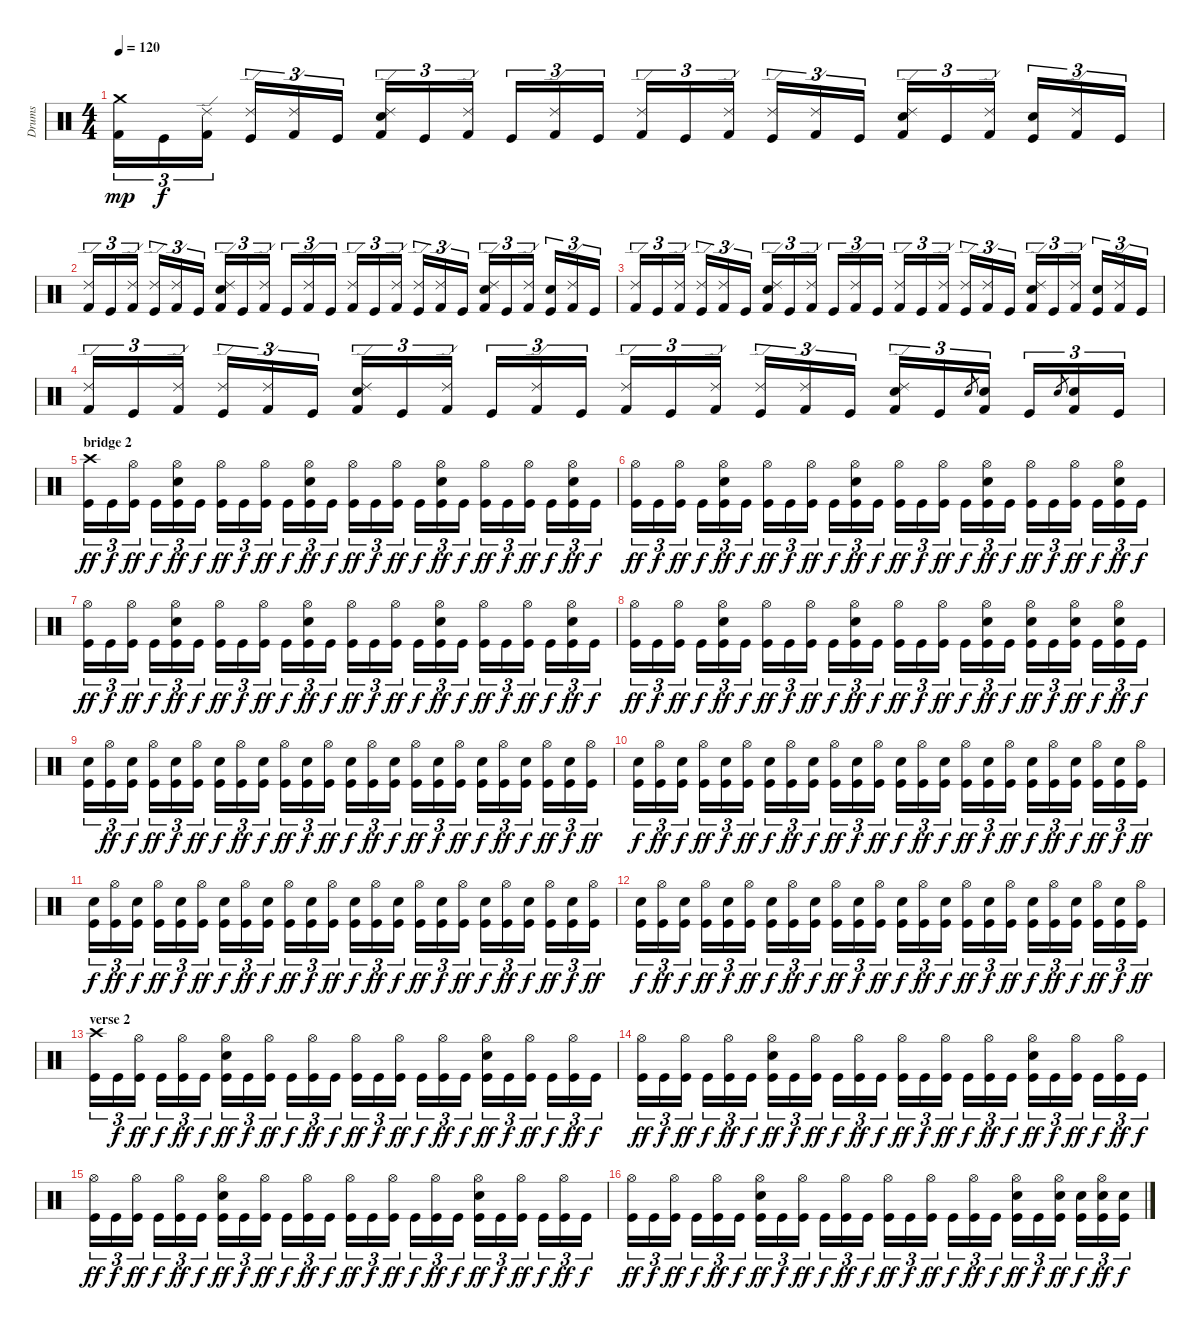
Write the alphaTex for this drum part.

\track ("Drums" "Drums") {instrument percussion}
\staff {score}
\articulation defaults
\ts (4 4)
\tempo 120
\clef neutral
\ks c
("Crash medium (hit)" "Kick (hit) 2").16{tu (3 2) dy mp} "Kick (hit)".16{tu (3 2) dy f} ("Ride (edge) 2" "Kick (hit) 2").16{tu (3 2)} ("Ride (edge) 2" "Kick (hit)").16{tu (3 2)} ("Ride (edge) 2" "Kick (hit) 2").16{tu (3 2)} "Kick (hit)".16{tu (3 2)} ("Ride (edge) 2" "Snare (hit) 2" "Kick (hit) 2").16{tu (3 2)} "Kick (hit)".16{tu (3 2)} ("Ride (edge) 2" "Kick (hit) 2").16{tu (3 2)} "Kick (hit)".16{tu (3 2)} ("Ride (edge) 2" "Kick (hit) 2").16{tu (3 2)} "Kick (hit)".16{tu (3 2)} ("Ride (edge) 2" "Kick (hit) 2").16{tu (3 2)} "Kick (hit)".16{tu (3 2)} ("Ride (edge) 2" "Kick (hit) 2").16{tu (3 2)} ("Ride (edge) 2" "Kick (hit)").16{tu (3 2)} ("Ride (edge) 2" "Kick (hit) 2").16{tu (3 2)} "Kick (hit)".16{tu (3 2)} ("Ride (edge) 2" "Snare (hit) 2" "Kick (hit) 2").16{tu (3 2)} "Kick (hit)".16{tu (3 2)} ("Ride (edge) 2" "Kick (hit) 2").16{tu (3 2)} ("Snare (hit) 2" "Kick (hit)").16{tu (3 2)} ("Ride (edge) 2" "Kick (hit) 2").16{tu (3 2)} "Kick (hit)".16{tu (3 2)} |
("Ride (edge) 2" "Kick (hit) 2").16{tu (3 2)} "Kick (hit)".16{tu (3 2)} ("Ride (edge) 2" "Kick (hit) 2").16{tu (3 2)} ("Ride (edge) 2" "Kick (hit)").16{tu (3 2)} ("Ride (edge) 2" "Kick (hit) 2").16{tu (3 2)} "Kick (hit)".16{tu (3 2)} ("Ride (edge) 2" "Snare (hit) 2" "Kick (hit) 2").16{tu (3 2)} "Kick (hit)".16{tu (3 2)} ("Ride (edge) 2" "Kick (hit) 2").16{tu (3 2)} "Kick (hit)".16{tu (3 2)} ("Ride (edge) 2" "Kick (hit) 2").16{tu (3 2)} "Kick (hit)".16{tu (3 2)} ("Ride (edge) 2" "Kick (hit) 2").16{tu (3 2)} "Kick (hit)".16{tu (3 2)} ("Ride (edge) 2" "Kick (hit) 2").16{tu (3 2)} ("Ride (edge) 2" "Kick (hit)").16{tu (3 2)} ("Ride (edge) 2" "Kick (hit) 2").16{tu (3 2)} "Kick (hit)".16{tu (3 2)} ("Ride (edge) 2" "Snare (hit) 2" "Kick (hit) 2").16{tu (3 2)} "Kick (hit)".16{tu (3 2)} ("Ride (edge) 2" "Kick (hit) 2").16{tu (3 2)} ("Snare (hit) 2" "Kick (hit)").16{tu (3 2)} ("Ride (edge) 2" "Kick (hit) 2").16{tu (3 2)} "Kick (hit)".16{tu (3 2)} |
("Ride (edge) 2" "Kick (hit) 2").16{tu (3 2)} "Kick (hit)".16{tu (3 2)} ("Ride (edge) 2" "Kick (hit) 2").16{tu (3 2)} ("Ride (edge) 2" "Kick (hit)").16{tu (3 2)} ("Ride (edge) 2" "Kick (hit) 2").16{tu (3 2)} "Kick (hit)".16{tu (3 2)} ("Ride (edge) 2" "Snare (hit) 2" "Kick (hit) 2").16{tu (3 2)} "Kick (hit)".16{tu (3 2)} ("Ride (edge) 2" "Kick (hit) 2").16{tu (3 2)} "Kick (hit)".16{tu (3 2)} ("Ride (edge) 2" "Kick (hit) 2").16{tu (3 2)} "Kick (hit)".16{tu (3 2)} ("Ride (edge) 2" "Kick (hit) 2").16{tu (3 2)} "Kick (hit)".16{tu (3 2)} ("Ride (edge) 2" "Kick (hit) 2").16{tu (3 2)} ("Ride (edge) 2" "Kick (hit)").16{tu (3 2)} ("Ride (edge) 2" "Kick (hit) 2").16{tu (3 2)} "Kick (hit)".16{tu (3 2)} ("Ride (edge) 2" "Snare (hit) 2" "Kick (hit) 2").16{tu (3 2)} "Kick (hit)".16{tu (3 2)} ("Ride (edge) 2" "Kick (hit) 2").16{tu (3 2)} ("Snare (hit) 2" "Kick (hit)").16{tu (3 2)} ("Ride (edge) 2" "Kick (hit) 2").16{tu (3 2)} "Kick (hit)".16{tu (3 2)} |
("Ride (edge) 2" "Kick (hit) 2").16{tu (3 2)} "Kick (hit)".16{tu (3 2)} ("Ride (edge) 2" "Kick (hit) 2").16{tu (3 2)} ("Ride (edge) 2" "Kick (hit)").16{tu (3 2)} ("Ride (edge) 2" "Kick (hit) 2").16{tu (3 2)} "Kick (hit)".16{tu (3 2)} ("Ride (edge) 2" "Snare (hit) 2" "Kick (hit) 2").16{tu (3 2)} "Kick (hit)".16{tu (3 2)} ("Ride (edge) 2" "Kick (hit) 2").16{tu (3 2)} "Kick (hit)".16{tu (3 2)} ("Ride (edge) 2" "Kick (hit) 2").16{tu (3 2)} "Kick (hit)".16{tu (3 2)} ("Ride (edge) 2" "Kick (hit) 2").16{tu (3 2)} "Kick (hit)".16{tu (3 2)} ("Ride (edge) 2" "Kick (hit) 2").16{tu (3 2)} ("Ride (edge) 2" "Kick (hit)").16{tu (3 2)} ("Ride (edge) 2" "Kick (hit) 2").16{tu (3 2)} "Kick (hit)".16{tu (3 2)} ("Ride (edge) 2" "Snare (hit) 2" "Kick (hit) 2").16{tu (3 2)} "Kick (hit)".16{tu (3 2)} "Snare (hit) 2".8{gr} ("Snare (hit) 2" "Kick (hit) 2").16{tu (3 2)} "Kick (hit)".16{tu (3 2)} "Snare (hit) 2".8{gr} ("Snare (hit) 2" "Kick (hit) 2").16{tu (3 2)} "Kick (hit)".16{tu (3 2)} |
\section ("" "bridge 2")
("Crash high (hit)" "Kick (hit)").16{tu (3 2) dy ff} "Kick (hit)".16{tu (3 2) dy f} ("Hi-Hat (open)" "Kick (hit)").16{tu (3 2) dy ff} "Kick (hit)".16{tu (3 2) dy f} ("Hi-Hat (open)" "Snare (hit) 2" "Kick (hit)").16{tu (3 2) dy ff} "Kick (hit)".16{tu (3 2) dy f} ("Hi-Hat (open)" "Kick (hit)").16{tu (3 2) dy ff} "Kick (hit)".16{tu (3 2) dy f} ("Hi-Hat (open)" "Kick (hit)").16{tu (3 2) dy ff} "Kick (hit)".16{tu (3 2) dy f} ("Hi-Hat (open)" "Snare (hit) 2" "Kick (hit)").16{tu (3 2) dy ff} "Kick (hit)".16{tu (3 2) dy f} ("Hi-Hat (open)" "Kick (hit)").16{tu (3 2) dy ff} "Kick (hit)".16{tu (3 2) dy f} ("Hi-Hat (open)" "Kick (hit)").16{tu (3 2) dy ff} "Kick (hit)".16{tu (3 2) dy f} ("Hi-Hat (open)" "Snare (hit) 2" "Kick (hit)").16{tu (3 2) dy ff} "Kick (hit)".16{tu (3 2) dy f} ("Hi-Hat (open)" "Kick (hit)").16{tu (3 2) dy ff} "Kick (hit)".16{tu (3 2) dy f} ("Hi-Hat (open)" "Kick (hit)").16{tu (3 2) dy ff} "Kick (hit)".16{tu (3 2) dy f} ("Hi-Hat (open)" "Snare (hit) 2" "Kick (hit)").16{tu (3 2) dy ff} "Kick (hit)".16{tu (3 2) dy f} |
("Hi-Hat (open)" "Kick (hit)").16{tu (3 2) dy ff} "Kick (hit)".16{tu (3 2) dy f} ("Hi-Hat (open)" "Kick (hit)").16{tu (3 2) dy ff} "Kick (hit)".16{tu (3 2) dy f} ("Hi-Hat (open)" "Snare (hit) 2" "Kick (hit)").16{tu (3 2) dy ff} "Kick (hit)".16{tu (3 2) dy f} ("Hi-Hat (open)" "Kick (hit)").16{tu (3 2) dy ff} "Kick (hit)".16{tu (3 2) dy f} ("Hi-Hat (open)" "Kick (hit)").16{tu (3 2) dy ff} "Kick (hit)".16{tu (3 2) dy f} ("Hi-Hat (open)" "Snare (hit) 2" "Kick (hit)").16{tu (3 2) dy ff} "Kick (hit)".16{tu (3 2) dy f} ("Hi-Hat (open)" "Kick (hit)").16{tu (3 2) dy ff} "Kick (hit)".16{tu (3 2) dy f} ("Hi-Hat (open)" "Kick (hit)").16{tu (3 2) dy ff} "Kick (hit)".16{tu (3 2) dy f} ("Hi-Hat (open)" "Snare (hit) 2" "Kick (hit)").16{tu (3 2) dy ff} "Kick (hit)".16{tu (3 2) dy f} ("Hi-Hat (open)" "Kick (hit)").16{tu (3 2) dy ff} "Kick (hit)".16{tu (3 2) dy f} ("Hi-Hat (open)" "Kick (hit)").16{tu (3 2) dy ff} "Kick (hit)".16{tu (3 2) dy f} ("Hi-Hat (open)" "Snare (hit) 2" "Kick (hit)").16{tu (3 2) dy ff} "Kick (hit)".16{tu (3 2) dy f} |
("Hi-Hat (open)" "Kick (hit)").16{tu (3 2) dy ff} "Kick (hit)".16{tu (3 2) dy f} ("Hi-Hat (open)" "Kick (hit)").16{tu (3 2) dy ff} "Kick (hit)".16{tu (3 2) dy f} ("Hi-Hat (open)" "Snare (hit) 2" "Kick (hit)").16{tu (3 2) dy ff} "Kick (hit)".16{tu (3 2) dy f} ("Hi-Hat (open)" "Kick (hit)").16{tu (3 2) dy ff} "Kick (hit)".16{tu (3 2) dy f} ("Hi-Hat (open)" "Kick (hit)").16{tu (3 2) dy ff} "Kick (hit)".16{tu (3 2) dy f} ("Hi-Hat (open)" "Snare (hit) 2" "Kick (hit)").16{tu (3 2) dy ff} "Kick (hit)".16{tu (3 2) dy f} ("Hi-Hat (open)" "Kick (hit)").16{tu (3 2) dy ff} "Kick (hit)".16{tu (3 2) dy f} ("Hi-Hat (open)" "Kick (hit)").16{tu (3 2) dy ff} "Kick (hit)".16{tu (3 2) dy f} ("Hi-Hat (open)" "Snare (hit) 2" "Kick (hit)").16{tu (3 2) dy ff} "Kick (hit)".16{tu (3 2) dy f} ("Hi-Hat (open)" "Kick (hit)").16{tu (3 2) dy ff} "Kick (hit)".16{tu (3 2) dy f} ("Hi-Hat (open)" "Kick (hit)").16{tu (3 2) dy ff} "Kick (hit)".16{tu (3 2) dy f} ("Hi-Hat (open)" "Snare (hit) 2" "Kick (hit)").16{tu (3 2) dy ff} "Kick (hit)".16{tu (3 2) dy f} |
("Hi-Hat (open)" "Kick (hit)").16{tu (3 2) dy ff} "Kick (hit)".16{tu (3 2) dy f} ("Hi-Hat (open)" "Kick (hit)").16{tu (3 2) dy ff} "Kick (hit)".16{tu (3 2) dy f} ("Hi-Hat (open)" "Snare (hit) 2" "Kick (hit)").16{tu (3 2) dy ff} "Kick (hit)".16{tu (3 2) dy f} ("Hi-Hat (open)" "Kick (hit)").16{tu (3 2) dy ff} "Kick (hit)".16{tu (3 2) dy f} ("Hi-Hat (open)" "Kick (hit)").16{tu (3 2) dy ff} "Kick (hit)".16{tu (3 2) dy f} ("Hi-Hat (open)" "Snare (hit) 2" "Kick (hit)").16{tu (3 2) dy ff} "Kick (hit)".16{tu (3 2) dy f} ("Hi-Hat (open)" "Kick (hit)").16{tu (3 2) dy ff} "Kick (hit)".16{tu (3 2) dy f} ("Hi-Hat (open)" "Kick (hit)").16{tu (3 2) dy ff} "Kick (hit)".16{tu (3 2) dy f} ("Hi-Hat (open)" "Snare (hit) 2" "Kick (hit)").16{tu (3 2) dy ff} "Kick (hit)".16{tu (3 2) dy f} ("Hi-Hat (open)" "Snare (hit) 2" "Kick (hit)").16{tu (3 2) dy ff} "Kick (hit)".16{tu (3 2) dy f} ("Hi-Hat (open)" "Snare (hit) 2" "Kick (hit)").16{tu (3 2) dy ff} "Kick (hit)".16{tu (3 2) dy f} ("Hi-Hat (open)" "Snare (hit) 2" "Kick (hit)").16{tu (3 2) dy ff} "Kick (hit)".16{tu (3 2) dy f} |
("Snare (hit) 2" "Kick (hit)").16{tu (3 2)} ("Hi-Hat (open)" "Kick (hit)").16{tu (3 2) dy ff} ("Snare (hit) 2" "Kick (hit)").16{tu (3 2) dy f} ("Hi-Hat (open)" "Kick (hit)").16{tu (3 2) dy ff} ("Snare (hit) 2" "Kick (hit)").16{tu (3 2) dy f} ("Hi-Hat (open)" "Kick (hit)").16{tu (3 2) dy ff} ("Snare (hit) 2" "Kick (hit)").16{tu (3 2) dy f} ("Hi-Hat (open)" "Kick (hit)").16{tu (3 2) dy ff} ("Snare (hit) 2" "Kick (hit)").16{tu (3 2) dy f} ("Hi-Hat (open)" "Kick (hit)").16{tu (3 2) dy ff} ("Snare (hit) 2" "Kick (hit)").16{tu (3 2) dy f} ("Hi-Hat (open)" "Kick (hit)").16{tu (3 2) dy ff} ("Snare (hit) 2" "Kick (hit)").16{tu (3 2) dy f} ("Hi-Hat (open)" "Kick (hit)").16{tu (3 2) dy ff} ("Snare (hit) 2" "Kick (hit)").16{tu (3 2) dy f} ("Hi-Hat (open)" "Kick (hit)").16{tu (3 2) dy ff} ("Snare (hit) 2" "Kick (hit)").16{tu (3 2) dy f} ("Hi-Hat (open)" "Kick (hit)").16{tu (3 2) dy ff} ("Snare (hit) 2" "Kick (hit)").16{tu (3 2) dy f} ("Hi-Hat (open)" "Kick (hit)").16{tu (3 2) dy ff} ("Snare (hit) 2" "Kick (hit)").16{tu (3 2) dy f} ("Hi-Hat (open)" "Kick (hit)").16{tu (3 2) dy ff} ("Snare (hit) 2" "Kick (hit)").16{tu (3 2) dy f} ("Hi-Hat (open)" "Kick (hit)").16{tu (3 2) dy ff} |
("Snare (hit) 2" "Kick (hit)").16{tu (3 2) dy f} ("Hi-Hat (open)" "Kick (hit)").16{tu (3 2) dy ff} ("Snare (hit) 2" "Kick (hit)").16{tu (3 2) dy f} ("Hi-Hat (open)" "Kick (hit)").16{tu (3 2) dy ff} ("Snare (hit) 2" "Kick (hit)").16{tu (3 2) dy f} ("Hi-Hat (open)" "Kick (hit)").16{tu (3 2) dy ff} ("Snare (hit) 2" "Kick (hit)").16{tu (3 2) dy f} ("Hi-Hat (open)" "Kick (hit)").16{tu (3 2) dy ff} ("Snare (hit) 2" "Kick (hit)").16{tu (3 2) dy f} ("Hi-Hat (open)" "Kick (hit)").16{tu (3 2) dy ff} ("Snare (hit) 2" "Kick (hit)").16{tu (3 2) dy f} ("Hi-Hat (open)" "Kick (hit)").16{tu (3 2) dy ff} ("Snare (hit) 2" "Kick (hit)").16{tu (3 2) dy f} ("Hi-Hat (open)" "Kick (hit)").16{tu (3 2) dy ff} ("Snare (hit) 2" "Kick (hit)").16{tu (3 2) dy f} ("Hi-Hat (open)" "Kick (hit)").16{tu (3 2) dy ff} ("Snare (hit) 2" "Kick (hit)").16{tu (3 2) dy f} ("Hi-Hat (open)" "Kick (hit)").16{tu (3 2) dy ff} ("Snare (hit) 2" "Kick (hit)").16{tu (3 2) dy f} ("Hi-Hat (open)" "Kick (hit)").16{tu (3 2) dy ff} ("Snare (hit) 2" "Kick (hit)").16{tu (3 2) dy f} ("Hi-Hat (open)" "Kick (hit)").16{tu (3 2) dy ff} ("Snare (hit) 2" "Kick (hit)").16{tu (3 2) dy f} ("Hi-Hat (open)" "Kick (hit)").16{tu (3 2) dy ff} |
("Snare (hit) 2" "Kick (hit)").16{tu (3 2) dy f} ("Hi-Hat (open)" "Kick (hit)").16{tu (3 2) dy ff} ("Snare (hit) 2" "Kick (hit)").16{tu (3 2) dy f} ("Hi-Hat (open)" "Kick (hit)").16{tu (3 2) dy ff} ("Snare (hit) 2" "Kick (hit)").16{tu (3 2) dy f} ("Hi-Hat (open)" "Kick (hit)").16{tu (3 2) dy ff} ("Snare (hit) 2" "Kick (hit)").16{tu (3 2) dy f} ("Hi-Hat (open)" "Kick (hit)").16{tu (3 2) dy ff} ("Snare (hit) 2" "Kick (hit)").16{tu (3 2) dy f} ("Hi-Hat (open)" "Kick (hit)").16{tu (3 2) dy ff} ("Snare (hit) 2" "Kick (hit)").16{tu (3 2) dy f} ("Hi-Hat (open)" "Kick (hit)").16{tu (3 2) dy ff} ("Snare (hit) 2" "Kick (hit)").16{tu (3 2) dy f} ("Hi-Hat (open)" "Kick (hit)").16{tu (3 2) dy ff} ("Snare (hit) 2" "Kick (hit)").16{tu (3 2) dy f} ("Hi-Hat (open)" "Kick (hit)").16{tu (3 2) dy ff} ("Snare (hit) 2" "Kick (hit)").16{tu (3 2) dy f} ("Hi-Hat (open)" "Kick (hit)").16{tu (3 2) dy ff} ("Snare (hit) 2" "Kick (hit)").16{tu (3 2) dy f} ("Hi-Hat (open)" "Kick (hit)").16{tu (3 2) dy ff} ("Snare (hit) 2" "Kick (hit)").16{tu (3 2) dy f} ("Hi-Hat (open)" "Kick (hit)").16{tu (3 2) dy ff} ("Snare (hit) 2" "Kick (hit)").16{tu (3 2) dy f} ("Hi-Hat (open)" "Kick (hit)").16{tu (3 2) dy ff} |
("Snare (hit) 2" "Kick (hit)").16{tu (3 2) dy f} ("Hi-Hat (open)" "Kick (hit)").16{tu (3 2) dy ff} ("Snare (hit) 2" "Kick (hit)").16{tu (3 2) dy f} ("Hi-Hat (open)" "Kick (hit)").16{tu (3 2) dy ff} ("Snare (hit) 2" "Kick (hit)").16{tu (3 2) dy f} ("Hi-Hat (open)" "Kick (hit)").16{tu (3 2) dy ff} ("Snare (hit) 2" "Kick (hit)").16{tu (3 2) dy f} ("Hi-Hat (open)" "Kick (hit)").16{tu (3 2) dy ff} ("Snare (hit) 2" "Kick (hit)").16{tu (3 2) dy f} ("Hi-Hat (open)" "Kick (hit)").16{tu (3 2) dy ff} ("Snare (hit) 2" "Kick (hit)").16{tu (3 2) dy f} ("Hi-Hat (open)" "Kick (hit)").16{tu (3 2) dy ff} ("Snare (hit) 2" "Kick (hit)").16{tu (3 2) dy f} ("Hi-Hat (open)" "Kick (hit)").16{tu (3 2) dy ff} ("Snare (hit) 2" "Kick (hit)").16{tu (3 2) dy f} ("Hi-Hat (open)" "Kick (hit)").16{tu (3 2) dy ff} ("Snare (hit) 2" "Kick (hit)").16{tu (3 2) dy f} ("Hi-Hat (open)" "Kick (hit)").16{tu (3 2) dy ff} ("Snare (hit) 2" "Kick (hit)").16{tu (3 2) dy f} ("Hi-Hat (open)" "Kick (hit)").16{tu (3 2) dy ff} ("Snare (hit) 2" "Kick (hit)").16{tu (3 2) dy f} ("Hi-Hat (open)" "Kick (hit)").16{tu (3 2) dy ff} ("Snare (hit) 2" "Kick (hit)").16{tu (3 2) dy f} ("Hi-Hat (open)" "Kick (hit)").16{tu (3 2) dy ff} |
\section ("" "verse 2")
("Crash high (hit)" "Kick (hit)").16{tu (3 2)} "Kick (hit)".16{tu (3 2) dy f} ("Hi-Hat (open)" "Kick (hit)").16{tu (3 2) dy ff} "Kick (hit)".16{tu (3 2) dy f} ("Hi-Hat (open)" "Kick (hit)").16{tu (3 2) dy ff} "Kick (hit)".16{tu (3 2) dy f} ("Hi-Hat (open)" "Snare (hit) 2" "Kick (hit)").16{tu (3 2) dy ff} "Kick (hit)".16{tu (3 2) dy f} ("Hi-Hat (open)" "Kick (hit)").16{tu (3 2) dy ff} "Kick (hit)".16{tu (3 2) dy f} ("Hi-Hat (open)" "Kick (hit)").16{tu (3 2) dy ff} "Kick (hit)".16{tu (3 2) dy f} ("Hi-Hat (open)" "Kick (hit)").16{tu (3 2) dy ff} "Kick (hit)".16{tu (3 2) dy f} ("Hi-Hat (open)" "Kick (hit)").16{tu (3 2) dy ff} "Kick (hit)".16{tu (3 2) dy f} ("Hi-Hat (open)" "Kick (hit)").16{tu (3 2) dy ff} "Kick (hit)".16{tu (3 2) dy f} ("Hi-Hat (open)" "Snare (hit) 2" "Kick (hit)").16{tu (3 2) dy ff} "Kick (hit)".16{tu (3 2) dy f} ("Hi-Hat (open)" "Kick (hit)").16{tu (3 2) dy ff} "Kick (hit)".16{tu (3 2) dy f} ("Hi-Hat (open)" "Kick (hit)").16{tu (3 2) dy ff} "Kick (hit)".16{tu (3 2) dy f} |
("Hi-Hat (open)" "Kick (hit)").16{tu (3 2) dy ff} "Kick (hit)".16{tu (3 2) dy f} ("Hi-Hat (open)" "Kick (hit)").16{tu (3 2) dy ff} "Kick (hit)".16{tu (3 2) dy f} ("Hi-Hat (open)" "Kick (hit)").16{tu (3 2) dy ff} "Kick (hit)".16{tu (3 2) dy f} ("Hi-Hat (open)" "Snare (hit) 2" "Kick (hit)").16{tu (3 2) dy ff} "Kick (hit)".16{tu (3 2) dy f} ("Hi-Hat (open)" "Kick (hit)").16{tu (3 2) dy ff} "Kick (hit)".16{tu (3 2) dy f} ("Hi-Hat (open)" "Kick (hit)").16{tu (3 2) dy ff} "Kick (hit)".16{tu (3 2) dy f} ("Hi-Hat (open)" "Kick (hit)").16{tu (3 2) dy ff} "Kick (hit)".16{tu (3 2) dy f} ("Hi-Hat (open)" "Kick (hit)").16{tu (3 2) dy ff} "Kick (hit)".16{tu (3 2) dy f} ("Hi-Hat (open)" "Kick (hit)").16{tu (3 2) dy ff} "Kick (hit)".16{tu (3 2) dy f} ("Hi-Hat (open)" "Snare (hit) 2" "Kick (hit)").16{tu (3 2) dy ff} "Kick (hit)".16{tu (3 2) dy f} ("Hi-Hat (open)" "Kick (hit)").16{tu (3 2) dy ff} "Kick (hit)".16{tu (3 2) dy f} ("Hi-Hat (open)" "Kick (hit)").16{tu (3 2) dy ff} "Kick (hit)".16{tu (3 2) dy f} |
("Hi-Hat (open)" "Kick (hit)").16{tu (3 2) dy ff} "Kick (hit)".16{tu (3 2) dy f} ("Hi-Hat (open)" "Kick (hit)").16{tu (3 2) dy ff} "Kick (hit)".16{tu (3 2) dy f} ("Hi-Hat (open)" "Kick (hit)").16{tu (3 2) dy ff} "Kick (hit)".16{tu (3 2) dy f} ("Hi-Hat (open)" "Snare (hit) 2" "Kick (hit)").16{tu (3 2) dy ff} "Kick (hit)".16{tu (3 2) dy f} ("Hi-Hat (open)" "Kick (hit)").16{tu (3 2) dy ff} "Kick (hit)".16{tu (3 2) dy f} ("Hi-Hat (open)" "Kick (hit)").16{tu (3 2) dy ff} "Kick (hit)".16{tu (3 2) dy f} ("Hi-Hat (open)" "Kick (hit)").16{tu (3 2) dy ff} "Kick (hit)".16{tu (3 2) dy f} ("Hi-Hat (open)" "Kick (hit)").16{tu (3 2) dy ff} "Kick (hit)".16{tu (3 2) dy f} ("Hi-Hat (open)" "Kick (hit)").16{tu (3 2) dy ff} "Kick (hit)".16{tu (3 2) dy f} ("Hi-Hat (open)" "Snare (hit) 2" "Kick (hit)").16{tu (3 2) dy ff} "Kick (hit)".16{tu (3 2) dy f} ("Hi-Hat (open)" "Kick (hit)").16{tu (3 2) dy ff} "Kick (hit)".16{tu (3 2) dy f} ("Hi-Hat (open)" "Kick (hit)").16{tu (3 2) dy ff} "Kick (hit)".16{tu (3 2) dy f} |
("Hi-Hat (open)" "Kick (hit)").16{tu (3 2) dy ff} "Kick (hit)".16{tu (3 2) dy f} ("Hi-Hat (open)" "Kick (hit)").16{tu (3 2) dy ff} "Kick (hit)".16{tu (3 2) dy f} ("Hi-Hat (open)" "Kick (hit)").16{tu (3 2) dy ff} "Kick (hit)".16{tu (3 2) dy f} ("Hi-Hat (open)" "Snare (hit) 2" "Kick (hit)").16{tu (3 2) dy ff} "Kick (hit)".16{tu (3 2) dy f} ("Hi-Hat (open)" "Kick (hit)").16{tu (3 2) dy ff} "Kick (hit)".16{tu (3 2) dy f} ("Hi-Hat (open)" "Kick (hit)").16{tu (3 2) dy ff} "Kick (hit)".16{tu (3 2) dy f} ("Hi-Hat (open)" "Kick (hit)").16{tu (3 2) dy ff} "Kick (hit)".16{tu (3 2) dy f} ("Hi-Hat (open)" "Kick (hit)").16{tu (3 2) dy ff} "Kick (hit)".16{tu (3 2) dy f} ("Hi-Hat (open)" "Kick (hit)").16{tu (3 2) dy ff} "Kick (hit)".16{tu (3 2) dy f} ("Hi-Hat (open)" "Snare (hit) 2" "Kick (hit)").16{tu (3 2) dy ff} "Kick (hit)".16{tu (3 2) dy f} ("Hi-Hat (open)" "Snare (hit) 2" "Kick (hit)").16{tu (3 2) dy ff} ("Snare (hit) 2" "Kick (hit)").16{tu (3 2) dy f} ("Hi-Hat (open)" "Snare (hit) 2" "Kick (hit)").16{tu (3 2) dy ff} ("Snare (hit) 2" "Kick (hit)").16{tu (3 2) dy f}
